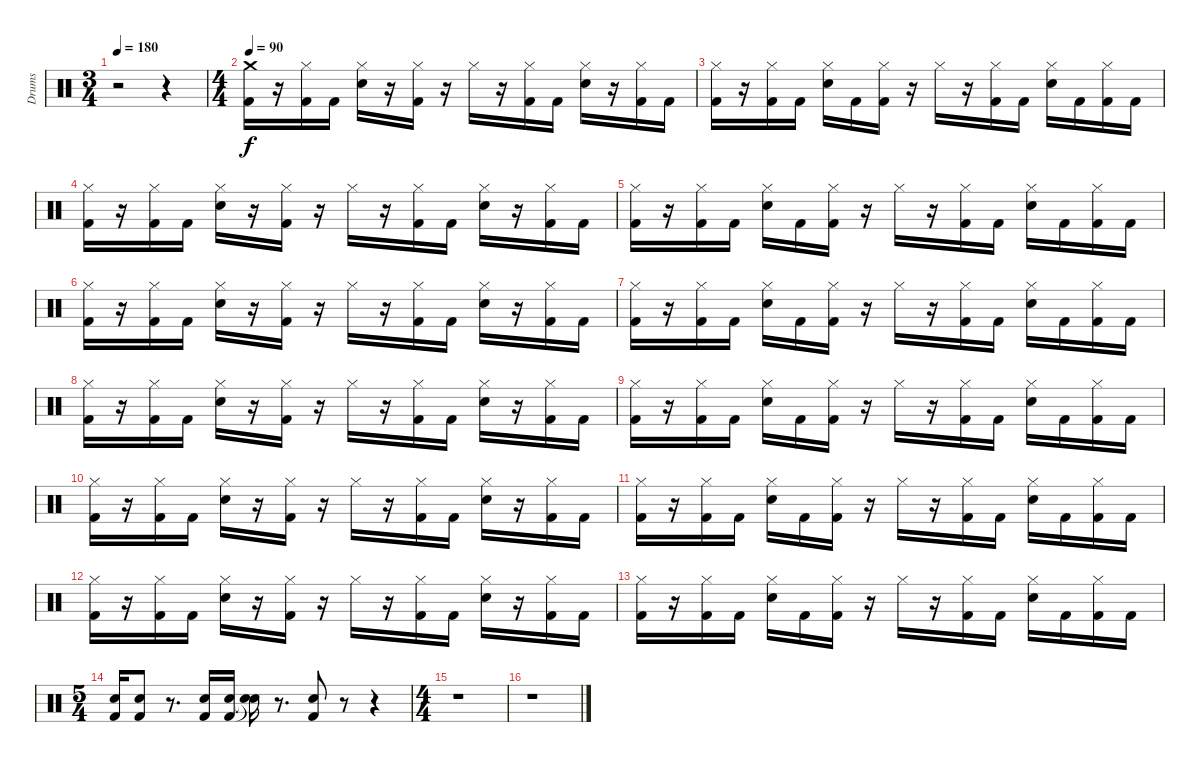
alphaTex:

\track ("Drums" "Drums") {instrument percussion}
\staff {score}
\articulation defaults
\ts (3 4)
\tempo 180
\clef neutral
\ks c
r.2{dy f} r.4 |
\ts (4 4)
\tempo 90
("Crash medium (hit)" "Kick (hit) 2").16 r.16 ("Hi-Hat (closed)" "Kick (hit) 2").16 "Kick (hit) 2".16 ("Hi-Hat (closed)" "Electric Snare (hit)").16 r.16 ("Hi-Hat (closed)" "Kick (hit) 2").16 r.16 "Hi-Hat (closed)".16 r.16 ("Hi-Hat (closed)" "Kick (hit) 2").16 "Kick (hit) 2".16 ("Hi-Hat (closed)" "Electric Snare (hit)").16 r.16 ("Kick (hit) 2" "Hi-Hat (closed)").16 "Kick (hit) 2".16 |
("Hi-Hat (closed)" "Kick (hit) 2").16 r.16 ("Hi-Hat (closed)" "Kick (hit) 2").16 "Kick (hit) 2".16 ("Hi-Hat (closed)" "Electric Snare (hit)").16 "Kick (hit) 2".16 ("Hi-Hat (closed)" "Kick (hit) 2").16 r.16 "Hi-Hat (closed)".16 r.16 ("Hi-Hat (closed)" "Kick (hit) 2").16 "Kick (hit) 2".16 ("Hi-Hat (closed)" "Electric Snare (hit)").16 "Kick (hit) 2".16 ("Kick (hit) 2" "Hi-Hat (closed)").16 "Kick (hit) 2".16 |
("Hi-Hat (closed)" "Kick (hit) 2").16 r.16 ("Hi-Hat (closed)" "Kick (hit) 2").16 "Kick (hit) 2".16 ("Hi-Hat (closed)" "Electric Snare (hit)").16 r.16 ("Hi-Hat (closed)" "Kick (hit) 2").16 r.16 "Hi-Hat (closed)".16 r.16 ("Hi-Hat (closed)" "Kick (hit) 2").16 "Kick (hit) 2".16 ("Hi-Hat (closed)" "Electric Snare (hit)").16 r.16 ("Kick (hit) 2" "Hi-Hat (closed)").16 "Kick (hit) 2".16 |
("Hi-Hat (closed)" "Kick (hit) 2").16 r.16 ("Hi-Hat (closed)" "Kick (hit) 2").16 "Kick (hit) 2".16 ("Hi-Hat (closed)" "Electric Snare (hit)").16 "Kick (hit) 2".16 ("Hi-Hat (closed)" "Kick (hit) 2").16 r.16 "Hi-Hat (closed)".16 r.16 ("Hi-Hat (closed)" "Kick (hit) 2").16 "Kick (hit) 2".16 ("Hi-Hat (closed)" "Electric Snare (hit)").16 "Kick (hit) 2".16 ("Kick (hit) 2" "Hi-Hat (closed)").16 "Kick (hit) 2".16 |
("Hi-Hat (closed)" "Kick (hit) 2").16 r.16 ("Hi-Hat (closed)" "Kick (hit) 2").16 "Kick (hit) 2".16 ("Hi-Hat (closed)" "Electric Snare (hit)").16 r.16 ("Hi-Hat (closed)" "Kick (hit) 2").16 r.16 "Hi-Hat (closed)".16 r.16 ("Hi-Hat (closed)" "Kick (hit) 2").16 "Kick (hit) 2".16 ("Hi-Hat (closed)" "Electric Snare (hit)").16 r.16 ("Kick (hit) 2" "Hi-Hat (closed)").16 "Kick (hit) 2".16 |
("Hi-Hat (closed)" "Kick (hit) 2").16 r.16 ("Hi-Hat (closed)" "Kick (hit) 2").16 "Kick (hit) 2".16 ("Hi-Hat (closed)" "Electric Snare (hit)").16 "Kick (hit) 2".16 ("Hi-Hat (closed)" "Kick (hit) 2").16 r.16 "Hi-Hat (closed)".16 r.16 ("Hi-Hat (closed)" "Kick (hit) 2").16 "Kick (hit) 2".16 ("Hi-Hat (closed)" "Electric Snare (hit)").16 "Kick (hit) 2".16 ("Kick (hit) 2" "Hi-Hat (closed)").16 "Kick (hit) 2".16 |
("Hi-Hat (closed)" "Kick (hit) 2").16 r.16 ("Hi-Hat (closed)" "Kick (hit) 2").16 "Kick (hit) 2".16 ("Hi-Hat (closed)" "Electric Snare (hit)").16 r.16 ("Hi-Hat (closed)" "Kick (hit) 2").16 r.16 "Hi-Hat (closed)".16 r.16 ("Hi-Hat (closed)" "Kick (hit) 2").16 "Kick (hit) 2".16 ("Hi-Hat (closed)" "Electric Snare (hit)").16 r.16 ("Kick (hit) 2" "Hi-Hat (closed)").16 "Kick (hit) 2".16 |
("Hi-Hat (closed)" "Kick (hit) 2").16 r.16 ("Hi-Hat (closed)" "Kick (hit) 2").16 "Kick (hit) 2".16 ("Hi-Hat (closed)" "Electric Snare (hit)").16 "Kick (hit) 2".16 ("Hi-Hat (closed)" "Kick (hit) 2").16 r.16 "Hi-Hat (closed)".16 r.16 ("Hi-Hat (closed)" "Kick (hit) 2").16 "Kick (hit) 2".16 ("Hi-Hat (closed)" "Electric Snare (hit)").16 "Kick (hit) 2".16 ("Kick (hit) 2" "Hi-Hat (closed)").16 "Kick (hit) 2".16 |
("Hi-Hat (closed)" "Kick (hit) 2").16 r.16 ("Hi-Hat (closed)" "Kick (hit) 2").16 "Kick (hit) 2".16 ("Hi-Hat (closed)" "Electric Snare (hit)").16 r.16 ("Hi-Hat (closed)" "Kick (hit) 2").16 r.16 "Hi-Hat (closed)".16 r.16 ("Hi-Hat (closed)" "Kick (hit) 2").16 "Kick (hit) 2".16 ("Hi-Hat (closed)" "Electric Snare (hit)").16 r.16 ("Kick (hit) 2" "Hi-Hat (closed)").16 "Kick (hit) 2".16 |
("Hi-Hat (closed)" "Kick (hit) 2").16 r.16 ("Hi-Hat (closed)" "Kick (hit) 2").16 "Kick (hit) 2".16 ("Hi-Hat (closed)" "Electric Snare (hit)").16 "Kick (hit) 2".16 ("Hi-Hat (closed)" "Kick (hit) 2").16 r.16 "Hi-Hat (closed)".16 r.16 ("Hi-Hat (closed)" "Kick (hit) 2").16 "Kick (hit) 2".16 ("Hi-Hat (closed)" "Electric Snare (hit)").16 "Kick (hit) 2".16 ("Kick (hit) 2" "Hi-Hat (closed)").16 "Kick (hit) 2".16 |
("Hi-Hat (closed)" "Kick (hit) 2").16 r.16 ("Hi-Hat (closed)" "Kick (hit) 2").16 "Kick (hit) 2".16 ("Hi-Hat (closed)" "Electric Snare (hit)").16 r.16 ("Hi-Hat (closed)" "Kick (hit) 2").16 r.16 "Hi-Hat (closed)".16 r.16 ("Hi-Hat (closed)" "Kick (hit) 2").16 "Kick (hit) 2".16 ("Hi-Hat (closed)" "Electric Snare (hit)").16 r.16 ("Kick (hit) 2" "Hi-Hat (closed)").16 "Kick (hit) 2".16 |
("Hi-Hat (closed)" "Kick (hit) 2").16 r.16 ("Hi-Hat (closed)" "Kick (hit) 2").16 "Kick (hit) 2".16 ("Hi-Hat (closed)" "Electric Snare (hit)").16 "Kick (hit) 2".16 ("Hi-Hat (closed)" "Kick (hit) 2").16 r.16 "Hi-Hat (closed)".16 r.16 ("Hi-Hat (closed)" "Kick (hit) 2").16 "Kick (hit) 2".16 ("Hi-Hat (closed)" "Electric Snare (hit)").16 "Kick (hit) 2".16 ("Kick (hit) 2" "Hi-Hat (closed)").16 "Kick (hit) 2".16 |
\ts (5 4)
("Kick (hit) 2" "Electric Snare (hit)").16 ("Kick (hit) 2" "Electric Snare (hit)").8 r.8{d} ("Kick (hit) 2" "Electric Snare (hit)").16 ("Kick (hit) 2" "Electric Snare (hit)").16 ("Snare (hit)"{t} "Snare (hit)"{t}).16 r.8{d} ("Kick (hit) 2" "Electric Snare (hit)").8 r.8 r.4 |
\ts (4 4)
r.1 |
r.1
